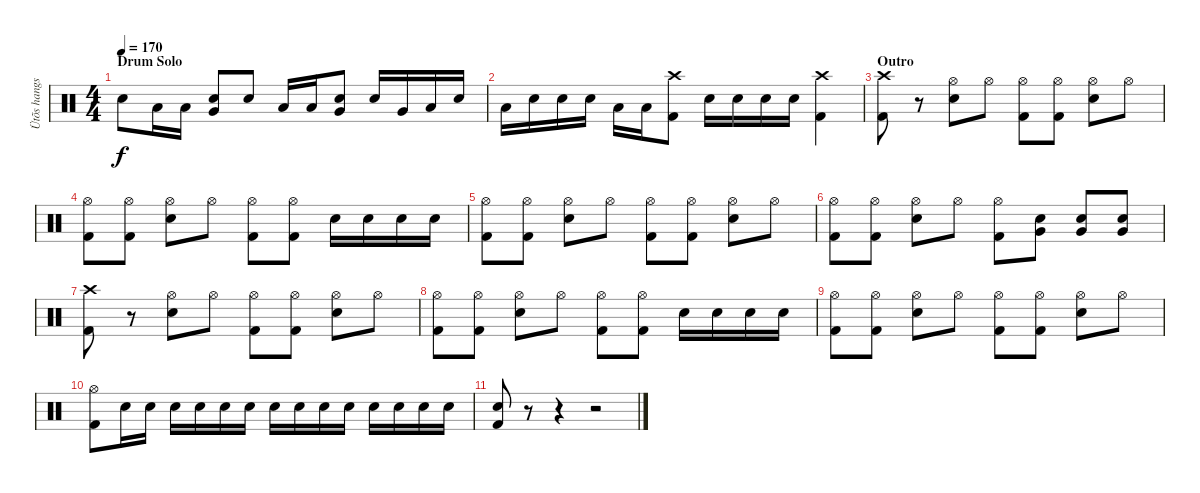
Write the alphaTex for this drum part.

\track ("Ütõs hangszer" "Ütõs hangs") {instrument percussion}
\staff {score}
\articulation defaults
\ts (4 4)
\section ("" "Drum Solo")
\tempo 170
\clef neutral
\ks c "Electric Snare (hit)".8{dy f} "Low Tom (hit)".16 "Low Tom (hit)".16
("Very Low Tom (hit)" "Electric Snare (hit)").8 "Electric Snare (hit)".8 "Low Tom (hit)".16 "Low Tom (hit)".16 ("Very Low Tom (hit)" "Electric Snare (hit)").8 "Electric Snare (hit)".16 "Very Low Tom (hit)".16 "Low Tom (hit)".16 "Electric Snare (hit)".16 |
"Low Tom (hit)".16 "Electric Snare (hit)".16 "Electric Snare (hit)".16 "Electric Snare (hit)".16 "Low Tom (hit)".16 "Low Tom (hit)".16 ("Crash high (hit)" "Kick (hit) 2").8 "Electric Snare (hit)".16 "Electric Snare (hit)".16 "Electric Snare (hit)".16 "Electric Snare (hit)".16 ("Crash high (hit)" "Kick (hit) 2").4 |
\section ("" "Outro")
("Crash high (hit)" "Kick (hit) 2").8 r.8 ("Hi-Hat (open)" "Electric Snare (hit)").8 "Hi-Hat (open)".8 ("Hi-Hat (open)" "Kick (hit) 2").8 ("Hi-Hat (open)" "Kick (hit) 2").8 ("Hi-Hat (open)" "Electric Snare (hit)").8 "Hi-Hat (open)".8 |
("Hi-Hat (open)" "Kick (hit) 2").8 ("Hi-Hat (open)" "Kick (hit) 2").8 ("Hi-Hat (open)" "Electric Snare (hit)").8 "Hi-Hat (open)".8 ("Hi-Hat (open)" "Kick (hit) 2").8 ("Hi-Hat (open)" "Kick (hit) 2").8 "Electric Snare (hit)".16 "Electric Snare (hit)".16 "Electric Snare (hit)".16 "Electric Snare (hit)".16 |
("Hi-Hat (open)" "Kick (hit) 2").8 ("Hi-Hat (open)" "Kick (hit) 2").8 ("Hi-Hat (open)" "Electric Snare (hit)").8 "Hi-Hat (open)".8 ("Hi-Hat (open)" "Kick (hit) 2").8 ("Hi-Hat (open)" "Kick (hit) 2").8 ("Hi-Hat (open)" "Electric Snare (hit)").8 "Hi-Hat (open)".8 |
("Hi-Hat (open)" "Kick (hit) 2").8 ("Hi-Hat (open)" "Kick (hit) 2").8 ("Hi-Hat (open)" "Electric Snare (hit)").8 "Hi-Hat (open)".8 ("Hi-Hat (open)" "Kick (hit) 2").8 ("Very Low Tom (hit)" "Electric Snare (hit)").8 ("Very Low Tom (hit)" "Electric Snare (hit)").8 ("Very Low Tom (hit)" "Electric Snare (hit)").8 |
("Crash high (hit)" "Kick (hit) 2").8 r.8 ("Hi-Hat (open)" "Electric Snare (hit)").8 "Hi-Hat (open)".8 ("Hi-Hat (open)" "Kick (hit) 2").8 ("Hi-Hat (open)" "Kick (hit) 2").8 ("Hi-Hat (open)" "Electric Snare (hit)").8 "Hi-Hat (open)".8 |
("Hi-Hat (open)" "Kick (hit) 2").8 ("Hi-Hat (open)" "Kick (hit) 2").8 ("Hi-Hat (open)" "Electric Snare (hit)").8 "Hi-Hat (open)".8 ("Hi-Hat (open)" "Kick (hit) 2").8 ("Hi-Hat (open)" "Kick (hit) 2").8 "Electric Snare (hit)".16 "Electric Snare (hit)".16 "Electric Snare (hit)".16 "Electric Snare (hit)".16 |
("Hi-Hat (open)" "Kick (hit) 2").8 ("Hi-Hat (open)" "Kick (hit) 2").8 ("Hi-Hat (open)" "Electric Snare (hit)").8 "Hi-Hat (open)".8 ("Hi-Hat (open)" "Kick (hit) 2").8 ("Hi-Hat (open)" "Kick (hit) 2").8 ("Hi-Hat (open)" "Electric Snare (hit)").8 "Hi-Hat (open)".8 |
("Hi-Hat (open)" "Kick (hit) 2").8 "Electric Snare (hit)".16 "Electric Snare (hit)".16 "Electric Snare (hit)".16 "Electric Snare (hit)".16 "Electric Snare (hit)".16 "Electric Snare (hit)".16 "Electric Snare (hit)".16 "Electric Snare (hit)".16 "Electric Snare (hit)".16 "Electric Snare (hit)".16 "Electric Snare (hit)".16 "Electric Snare (hit)".16 "Electric Snare (hit)".16 "Electric Snare (hit)".16 |
("Electric Snare (hit)" "Kick (hit) 2").8 r.8 r.4 r.2
